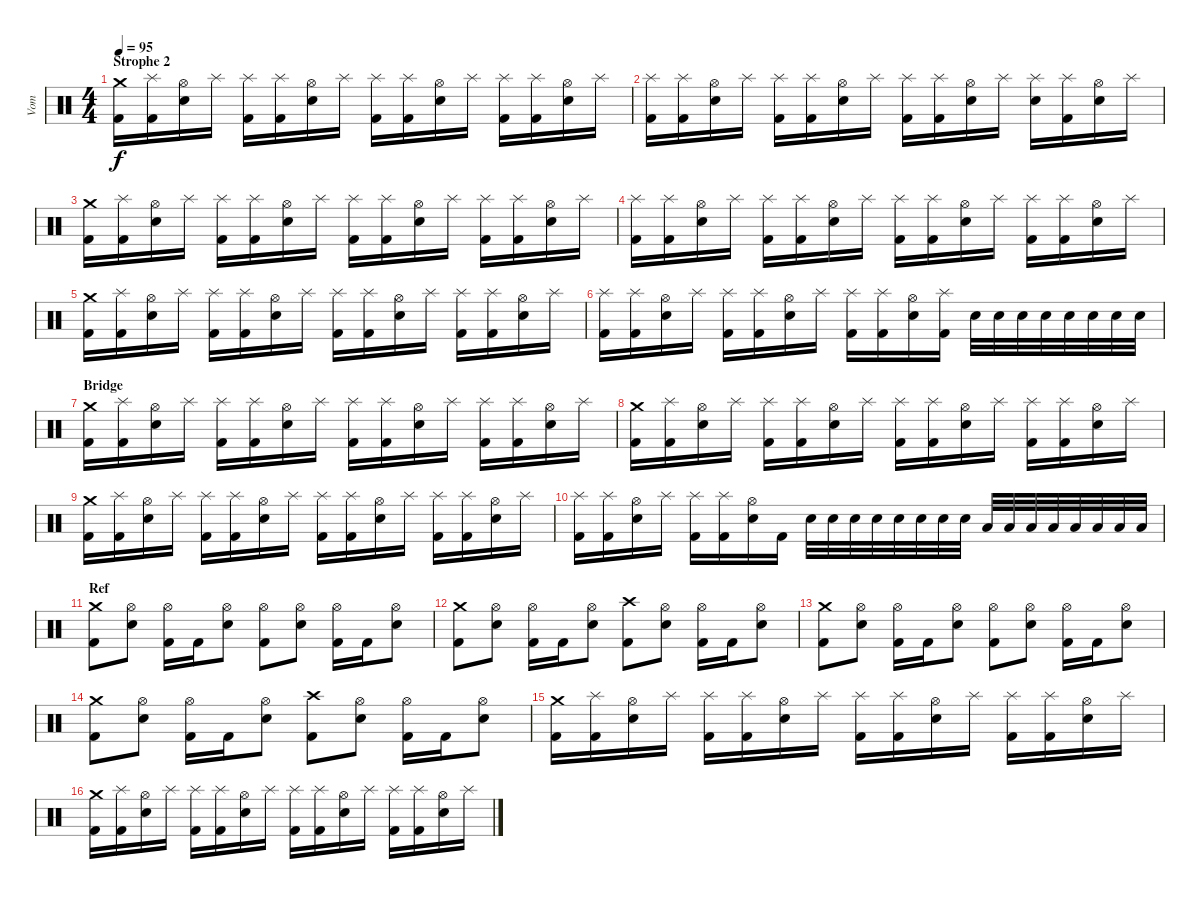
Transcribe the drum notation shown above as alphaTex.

\track ("Vom" "Vom") {instrument percussion}
\staff {score}
\articulation defaults
\ts (4 4)
\section ("" "Strophe 2")
\tempo 95
\clef neutral
\ks c
("Kick (hit) 2" "Crash medium (hit)").16{dy f} ("Kick (hit) 2" "Splash (hit)").16 ("Snare (hit) 2" "Hi-Hat (open)").16 "Splash (hit)".16 ("Kick (hit) 2" "Splash (hit)").16 ("Kick (hit) 2" "Splash (hit)").16 ("Snare (hit) 2" "Hi-Hat (open)").16 "Splash (hit)".16 ("Kick (hit) 2" "Splash (hit)").16 ("Kick (hit) 2" "Splash (hit)").16 ("Snare (hit) 2" "Hi-Hat (open)").16 "Splash (hit)".16 ("Kick (hit) 2" "Splash (hit)").16 ("Kick (hit) 2" "Splash (hit)").16 ("Snare (hit) 2" "Hi-Hat (open)").16 "Splash (hit)".16 |
("Kick (hit) 2" "Splash (hit)").16 ("Kick (hit) 2" "Splash (hit)").16 ("Snare (hit) 2" "Hi-Hat (open)").16 "Splash (hit)".16 ("Kick (hit) 2" "Splash (hit)").16 ("Kick (hit) 2" "Splash (hit)").16 ("Snare (hit) 2" "Hi-Hat (open)").16 "Splash (hit)".16 ("Kick (hit) 2" "Splash (hit)").16 ("Kick (hit) 2" "Splash (hit)").16 ("Snare (hit) 2" "Hi-Hat (open)").16 "Splash (hit)".16 ("Snare (hit) 2" "Splash (hit)").16 ("Kick (hit) 2" "Splash (hit)").16 ("Snare (hit) 2" "Hi-Hat (open)").16 "Splash (hit)".16 |
("Kick (hit) 2" "Crash medium (hit)").16 ("Kick (hit) 2" "Splash (hit)").16 ("Snare (hit) 2" "Hi-Hat (open)").16 "Splash (hit)".16 ("Kick (hit) 2" "Splash (hit)").16 ("Kick (hit) 2" "Splash (hit)").16 ("Snare (hit) 2" "Hi-Hat (open)").16 "Splash (hit)".16 ("Kick (hit) 2" "Splash (hit)").16 ("Kick (hit) 2" "Splash (hit)").16 ("Snare (hit) 2" "Hi-Hat (open)").16 "Splash (hit)".16 ("Kick (hit) 2" "Splash (hit)").16 ("Kick (hit) 2" "Splash (hit)").16 ("Snare (hit) 2" "Hi-Hat (open)").16 "Splash (hit)".16 |
("Kick (hit) 2" "Splash (hit)").16 ("Kick (hit) 2" "Splash (hit)").16 ("Snare (hit) 2" "Hi-Hat (open)").16 "Splash (hit)".16 ("Kick (hit) 2" "Splash (hit)").16 ("Kick (hit) 2" "Splash (hit)").16 ("Snare (hit) 2" "Hi-Hat (open)").16 "Splash (hit)".16 ("Kick (hit) 2" "Splash (hit)").16 ("Kick (hit) 2" "Splash (hit)").16 ("Snare (hit) 2" "Hi-Hat (open)").16 "Splash (hit)".16 ("Kick (hit) 2" "Splash (hit)").16 ("Kick (hit) 2" "Splash (hit)").16 ("Snare (hit) 2" "Hi-Hat (open)").16 "Splash (hit)".16 |
("Kick (hit) 2" "Crash medium (hit)").16 ("Kick (hit) 2" "Splash (hit)").16 ("Snare (hit) 2" "Hi-Hat (open)").16 "Splash (hit)".16 ("Kick (hit) 2" "Splash (hit)").16 ("Kick (hit) 2" "Splash (hit)").16 ("Snare (hit) 2" "Hi-Hat (open)").16 "Splash (hit)".16 ("Kick (hit) 2" "Splash (hit)").16 ("Kick (hit) 2" "Splash (hit)").16 ("Snare (hit) 2" "Hi-Hat (open)").16 "Splash (hit)".16 ("Kick (hit) 2" "Splash (hit)").16 ("Kick (hit) 2" "Splash (hit)").16 ("Snare (hit) 2" "Hi-Hat (open)").16 "Splash (hit)".16 |
("Kick (hit) 2" "Splash (hit)").16 ("Kick (hit) 2" "Splash (hit)").16 ("Snare (hit) 2" "Hi-Hat (open)").16 "Splash (hit)".16 ("Kick (hit) 2" "Splash (hit)").16 ("Kick (hit) 2" "Splash (hit)").16 ("Snare (hit) 2" "Hi-Hat (open)").16 "Splash (hit)".16 ("Kick (hit) 2" "Splash (hit)").16 ("Kick (hit) 2" "Splash (hit)").16 ("Snare (hit) 2" "Hi-Hat (open)").16 ("Kick (hit) 2" "Splash (hit)").16 "Snare (hit) 2".32 "Snare (hit) 2".32 "Snare (hit) 2".32 "Snare (hit) 2".32 "Snare (hit) 2".32 "Snare (hit) 2".32 "Snare (hit) 2".32 "Snare (hit) 2".32 |
\section ("" "Bridge")
("Kick (hit) 2" "Crash medium (hit)").16 ("Kick (hit) 2" "Splash (hit)").16 ("Snare (hit) 2" "Hi-Hat (open)").16 "Splash (hit)".16 ("Kick (hit) 2" "Splash (hit)").16 ("Kick (hit) 2" "Splash (hit)").16 ("Snare (hit) 2" "Hi-Hat (open)").16 "Splash (hit)".16 ("Kick (hit) 2" "Splash (hit)").16 ("Kick (hit) 2" "Splash (hit)").16 ("Snare (hit) 2" "Hi-Hat (open)").16 "Splash (hit)".16 ("Kick (hit) 2" "Splash (hit)").16 ("Kick (hit) 2" "Splash (hit)").16 ("Snare (hit) 2" "Hi-Hat (open)").16 "Splash (hit)".16 |
("Kick (hit) 2" "Crash medium (hit)").16 ("Kick (hit) 2" "Splash (hit)").16 ("Snare (hit) 2" "Hi-Hat (open)").16 "Splash (hit)".16 ("Kick (hit) 2" "Splash (hit)").16 ("Kick (hit) 2" "Splash (hit)").16 ("Snare (hit) 2" "Hi-Hat (open)").16 "Splash (hit)".16 ("Kick (hit) 2" "Splash (hit)").16 ("Kick (hit) 2" "Splash (hit)").16 ("Snare (hit) 2" "Hi-Hat (open)").16 "Splash (hit)".16 ("Kick (hit) 2" "Splash (hit)").16 ("Kick (hit) 2" "Splash (hit)").16 ("Snare (hit) 2" "Hi-Hat (open)").16 "Splash (hit)".16 |
("Kick (hit) 2" "Crash medium (hit)").16 ("Kick (hit) 2" "Splash (hit)").16 ("Snare (hit) 2" "Hi-Hat (open)").16 "Splash (hit)".16 ("Kick (hit) 2" "Splash (hit)").16 ("Kick (hit) 2" "Splash (hit)").16 ("Snare (hit) 2" "Hi-Hat (open)").16 "Splash (hit)".16 ("Kick (hit) 2" "Splash (hit)").16 ("Kick (hit) 2" "Splash (hit)").16 ("Snare (hit) 2" "Hi-Hat (open)").16 "Splash (hit)".16 ("Kick (hit) 2" "Splash (hit)").16 ("Kick (hit) 2" "Splash (hit)").16 ("Snare (hit) 2" "Hi-Hat (open)").16 "Splash (hit)".16 |
("Kick (hit) 2" "Splash (hit)").16 ("Kick (hit) 2" "Splash (hit)").16 ("Snare (hit) 2" "Hi-Hat (open)").16 "Splash (hit)".16 ("Kick (hit) 2" "Splash (hit)").16 ("Kick (hit) 2" "Splash (hit)").16 ("Snare (hit) 2" "Hi-Hat (open)").16 "Kick (hit) 2".16 "Snare (hit) 2".32 "Snare (hit) 2".32 "Snare (hit) 2".32 "Snare (hit) 2".32 "Snare (hit) 2".32 "Snare (hit) 2".32 "Snare (hit) 2".32 "Snare (hit) 2".32 "Low Tom (hit)".32 "Low Tom (hit)".32 "Low Tom (hit)".32 "Low Tom (hit)".32 "Low Tom (hit)".32 "Low Tom (hit)".32 "Low Tom (hit)".32 "Low Tom (hit)".32 |
\section ("" "Ref")
("Crash medium (hit)" "Kick (hit) 2").8 ("Hi-Hat (open)" "Snare (hit) 2").8 ("Hi-Hat (open)" "Kick (hit) 2").16 "Kick (hit) 2".16 ("Hi-Hat (open)" "Snare (hit) 2").8 ("Hi-Hat (open)" "Kick (hit) 2").8 ("Hi-Hat (open)" "Snare (hit) 2").8 ("Hi-Hat (open)" "Kick (hit) 2").16 "Kick (hit) 2".16 ("Hi-Hat (open)" "Snare (hit) 2").8 |
("Crash medium (hit)" "Kick (hit) 2").8 ("Hi-Hat (open)" "Snare (hit) 2").8 ("Hi-Hat (open)" "Kick (hit) 2").16 "Kick (hit) 2".16 ("Hi-Hat (open)" "Snare (hit) 2").8 ("Crash high (hit)" "Kick (hit) 2").8 ("Hi-Hat (open)" "Snare (hit) 2").8 ("Hi-Hat (open)" "Kick (hit) 2").16 "Kick (hit) 2".16 ("Hi-Hat (open)" "Snare (hit) 2").8 |
("Crash medium (hit)" "Kick (hit) 2").8 ("Hi-Hat (open)" "Snare (hit) 2").8 ("Hi-Hat (open)" "Kick (hit) 2").16 "Kick (hit) 2".16 ("Hi-Hat (open)" "Snare (hit) 2").8 ("Hi-Hat (open)" "Kick (hit) 2").8 ("Hi-Hat (open)" "Snare (hit) 2").8 ("Hi-Hat (open)" "Kick (hit) 2").16 "Kick (hit) 2".16 ("Hi-Hat (open)" "Snare (hit) 2").8 |
("Crash medium (hit)" "Kick (hit) 2").8 ("Hi-Hat (open)" "Snare (hit) 2").8 ("Hi-Hat (open)" "Kick (hit) 2").16 "Kick (hit) 2".16 ("Hi-Hat (open)" "Snare (hit) 2").8 ("Crash high (hit)" "Kick (hit) 2").8 ("Hi-Hat (open)" "Snare (hit) 2").8 ("Hi-Hat (open)" "Kick (hit) 2").16 "Kick (hit) 2".16 ("Hi-Hat (open)" "Snare (hit) 2").8 |
("Kick (hit) 2" "Crash medium (hit)").16 ("Kick (hit) 2" "Splash (hit)").16 ("Snare (hit) 2" "Hi-Hat (open)").16 "Splash (hit)".16 ("Kick (hit) 2" "Splash (hit)").16 ("Kick (hit) 2" "Splash (hit)").16 ("Snare (hit) 2" "Hi-Hat (open)").16 "Splash (hit)".16 ("Kick (hit) 2" "Splash (hit)").16 ("Kick (hit) 2" "Splash (hit)").16 ("Snare (hit) 2" "Hi-Hat (open)").16 "Splash (hit)".16 ("Kick (hit) 2" "Splash (hit)").16 ("Kick (hit) 2" "Splash (hit)").16 ("Snare (hit) 2" "Hi-Hat (open)").16 "Splash (hit)".16 |
("Kick (hit) 2" "Crash medium (hit)").16 ("Kick (hit) 2" "Splash (hit)").16 ("Snare (hit) 2" "Hi-Hat (open)").16 "Splash (hit)".16 ("Kick (hit) 2" "Splash (hit)").16 ("Kick (hit) 2" "Splash (hit)").16 ("Snare (hit) 2" "Hi-Hat (open)").16 "Splash (hit)".16 ("Kick (hit) 2" "Splash (hit)").16 ("Kick (hit) 2" "Splash (hit)").16 ("Snare (hit) 2" "Hi-Hat (open)").16 "Splash (hit)".16 ("Kick (hit) 2" "Splash (hit)").16 ("Kick (hit) 2" "Splash (hit)").16 ("Snare (hit) 2" "Hi-Hat (open)").16 "Splash (hit)".16
